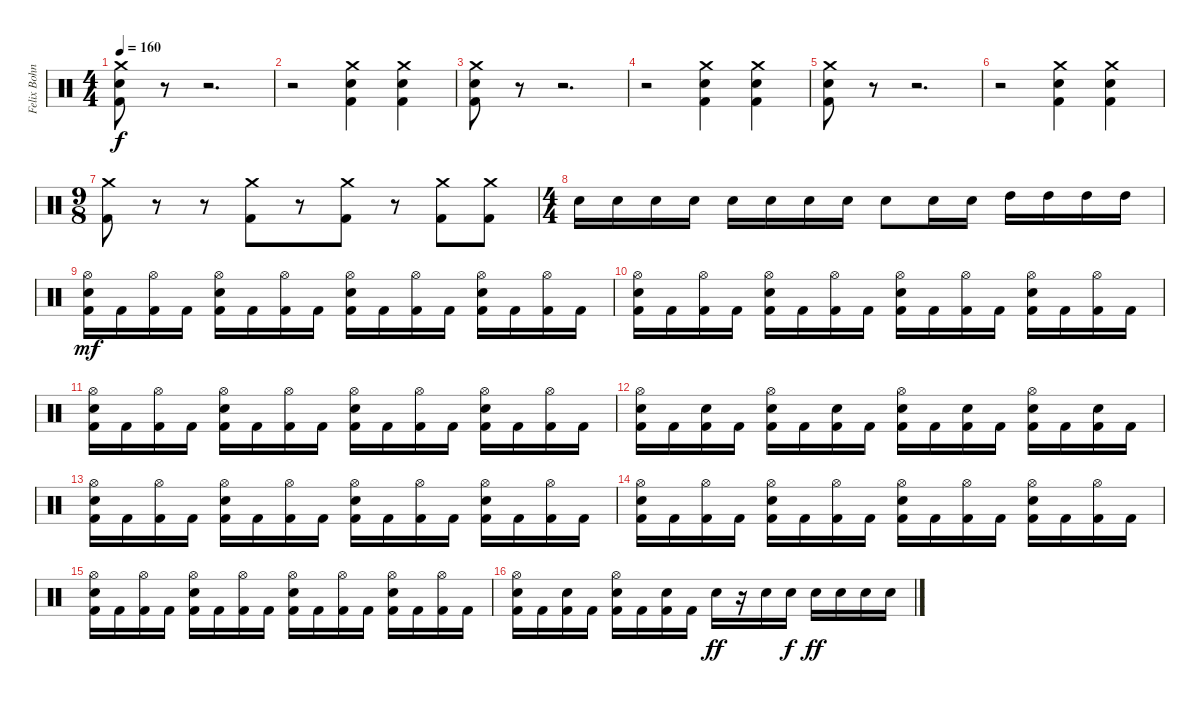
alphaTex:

\track ("Felix Bohnke" "Felix Bohn") {instrument percussion}
\staff {score}
\articulation defaults
\ts (4 4)
\tempo 160
\clef neutral
\ks c
("Crash medium (hit)" "Electric Snare (hit)" "Kick (hit) 2").8{dy f} r.8 r.2{d} |
r.2 ("Crash medium (hit)" "Electric Snare (hit)" "Kick (hit) 2").4 ("Crash medium (hit)" "Electric Snare (hit)" "Kick (hit) 2").4 |
("Crash medium (hit)" "Electric Snare (hit)" "Kick (hit) 2").8 r.8 r.2{d} |
r.2 ("Crash medium (hit)" "Electric Snare (hit)" "Kick (hit) 2").4 ("Crash medium (hit)" "Electric Snare (hit)" "Kick (hit) 2").4 |
("Crash medium (hit)" "Electric Snare (hit)" "Kick (hit) 2").8 r.8 r.2{d} |
r.2 ("Crash medium (hit)" "Electric Snare (hit)" "Kick (hit) 2").4 ("Crash medium (hit)" "Electric Snare (hit)" "Kick (hit) 2").4 |
\ts (9 8)
("Crash medium (hit)" "Kick (hit) 2").8 r.8 r.8 ("Crash medium (hit)" "Kick (hit) 2").8 r.8 ("Crash medium (hit)" "Kick (hit) 2").8 r.8 ("Crash medium (hit)" "Kick (hit) 2").8 ("Crash medium (hit)" "Kick (hit) 2").8 |
\ts (4 4)
"Electric Snare (hit)".16 "Electric Snare (hit)".16 "Electric Snare (hit)".16 "Electric Snare (hit)".16 "Electric Snare (hit)".16 "Electric Snare (hit)".16 "Electric Snare (hit)".16 "Electric Snare (hit)".16 "Electric Snare (hit)".8 "Electric Snare (hit)".16 "Electric Snare (hit)".16 "High Tom (hit)".16 "High Tom (hit)".16 "High Tom (hit)".16 "High Tom (hit)".16 |
("Hi-Hat (open)" "Electric Snare (hit)" "Kick (hit) 2").16{dy mf} "Kick (hit) 2".16 ("Hi-Hat (open)" "Kick (hit) 2").16 "Kick (hit) 2".16 ("Hi-Hat (open)" "Electric Snare (hit)" "Kick (hit) 2").16 "Kick (hit) 2".16 ("Hi-Hat (open)" "Kick (hit) 2").16 "Kick (hit) 2".16 ("Hi-Hat (open)" "Electric Snare (hit)" "Kick (hit) 2").16 "Kick (hit) 2".16 ("Hi-Hat (open)" "Kick (hit) 2").16 "Kick (hit) 2".16 ("Hi-Hat (open)" "Electric Snare (hit)" "Kick (hit) 2").16 "Kick (hit) 2".16 ("Hi-Hat (open)" "Kick (hit) 2").16 "Kick (hit) 2".16 |
("Hi-Hat (open)" "Electric Snare (hit)" "Kick (hit) 2").16 "Kick (hit) 2".16 ("Hi-Hat (open)" "Kick (hit) 2").16 "Kick (hit) 2".16 ("Hi-Hat (open)" "Electric Snare (hit)" "Kick (hit) 2").16 "Kick (hit) 2".16 ("Hi-Hat (open)" "Kick (hit) 2").16 "Kick (hit) 2".16 ("Hi-Hat (open)" "Electric Snare (hit)" "Kick (hit) 2").16 "Kick (hit) 2".16 ("Hi-Hat (open)" "Kick (hit) 2").16 "Kick (hit) 2".16 ("Hi-Hat (open)" "Electric Snare (hit)" "Kick (hit) 2").16 "Kick (hit) 2".16 ("Hi-Hat (open)" "Kick (hit) 2").16 "Kick (hit) 2".16 |
("Hi-Hat (open)" "Electric Snare (hit)" "Kick (hit) 2").16 "Kick (hit) 2".16 ("Hi-Hat (open)" "Kick (hit) 2").16 "Kick (hit) 2".16 ("Hi-Hat (open)" "Electric Snare (hit)" "Kick (hit) 2").16 "Kick (hit) 2".16 ("Hi-Hat (open)" "Kick (hit) 2").16 "Kick (hit) 2".16 ("Hi-Hat (open)" "Electric Snare (hit)" "Kick (hit) 2").16 "Kick (hit) 2".16 ("Hi-Hat (open)" "Kick (hit) 2").16 "Kick (hit) 2".16 ("Hi-Hat (open)" "Electric Snare (hit)" "Kick (hit) 2").16 "Kick (hit) 2".16 ("Hi-Hat (open)" "Kick (hit) 2").16 "Kick (hit) 2".16 |
("Hi-Hat (open)" "Electric Snare (hit)" "Kick (hit) 2").16 "Kick (hit) 2".16 ("Electric Snare (hit)" "Kick (hit) 2").16 "Kick (hit) 2".16 ("Hi-Hat (open)" "Electric Snare (hit)" "Kick (hit) 2").16 "Kick (hit) 2".16 ("Electric Snare (hit)" "Kick (hit) 2").16 "Kick (hit) 2".16 ("Hi-Hat (open)" "Electric Snare (hit)" "Kick (hit) 2").16 "Kick (hit) 2".16 ("Electric Snare (hit)" "Kick (hit) 2").16 "Kick (hit) 2".16 ("Hi-Hat (open)" "Electric Snare (hit)" "Kick (hit) 2").16 "Kick (hit) 2".16 ("Electric Snare (hit)" "Kick (hit) 2").16 "Kick (hit) 2".16 |
("Hi-Hat (open)" "Electric Snare (hit)" "Kick (hit) 2").16 "Kick (hit) 2".16 ("Hi-Hat (open)" "Kick (hit) 2").16 "Kick (hit) 2".16 ("Hi-Hat (open)" "Electric Snare (hit)" "Kick (hit) 2").16 "Kick (hit) 2".16 ("Hi-Hat (open)" "Kick (hit) 2").16 "Kick (hit) 2".16 ("Hi-Hat (open)" "Electric Snare (hit)" "Kick (hit) 2").16 "Kick (hit) 2".16 ("Hi-Hat (open)" "Kick (hit) 2").16 "Kick (hit) 2".16 ("Hi-Hat (open)" "Electric Snare (hit)" "Kick (hit) 2").16 "Kick (hit) 2".16 ("Hi-Hat (open)" "Kick (hit) 2").16 "Kick (hit) 2".16 |
("Hi-Hat (open)" "Electric Snare (hit)" "Kick (hit) 2").16 "Kick (hit) 2".16 ("Hi-Hat (open)" "Kick (hit) 2").16 "Kick (hit) 2".16 ("Hi-Hat (open)" "Electric Snare (hit)" "Kick (hit) 2").16 "Kick (hit) 2".16 ("Hi-Hat (open)" "Kick (hit) 2").16 "Kick (hit) 2".16 ("Hi-Hat (open)" "Electric Snare (hit)" "Kick (hit) 2").16 "Kick (hit) 2".16 ("Hi-Hat (open)" "Kick (hit) 2").16 "Kick (hit) 2".16 ("Hi-Hat (open)" "Electric Snare (hit)" "Kick (hit) 2").16 "Kick (hit) 2".16 ("Hi-Hat (open)" "Kick (hit) 2").16 "Kick (hit) 2".16 |
("Hi-Hat (open)" "Electric Snare (hit)" "Kick (hit) 2").16 "Kick (hit) 2".16 ("Hi-Hat (open)" "Kick (hit) 2").16 "Kick (hit) 2".16 ("Hi-Hat (open)" "Electric Snare (hit)" "Kick (hit) 2").16 "Kick (hit) 2".16 ("Hi-Hat (open)" "Kick (hit) 2").16 "Kick (hit) 2".16 ("Hi-Hat (open)" "Electric Snare (hit)" "Kick (hit) 2").16 "Kick (hit) 2".16 ("Hi-Hat (open)" "Kick (hit) 2").16 "Kick (hit) 2".16 ("Hi-Hat (open)" "Electric Snare (hit)" "Kick (hit) 2").16 "Kick (hit) 2".16 ("Hi-Hat (open)" "Kick (hit) 2").16 "Kick (hit) 2".16 |
("Hi-Hat (open)" "Electric Snare (hit)" "Kick (hit) 2").16 "Kick (hit) 2".16 ("Electric Snare (hit)" "Kick (hit) 2").16 "Kick (hit) 2".16 ("Hi-Hat (open)" "Electric Snare (hit)" "Kick (hit) 2").16 "Kick (hit) 2".16 ("Electric Snare (hit)" "Kick (hit) 2").16 "Kick (hit) 2".16 "Electric Snare (hit)".16{dy ff} r.16 "Electric Snare (hit)".16 "Electric Snare (hit)".16{dy f} "Electric Snare (hit)".16{dy ff} "Electric Snare (hit)".16 "Electric Snare (hit)".16 "Electric Snare (hit)".16
